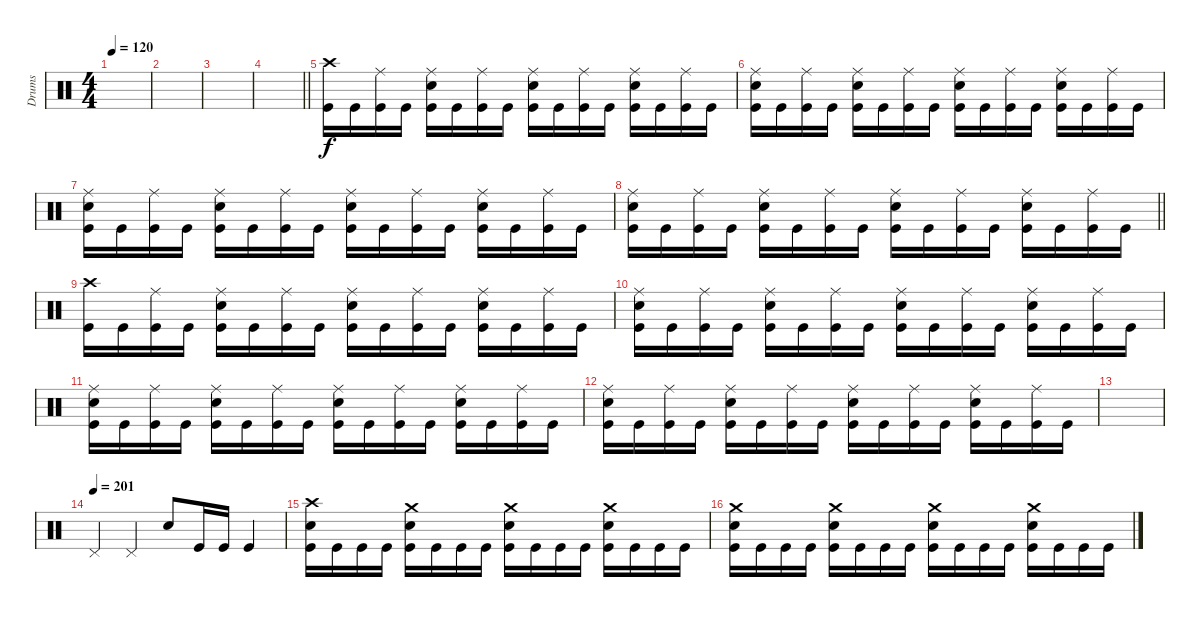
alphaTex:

\track ("Drums" "Drums") {instrument percussion}
\staff
\articulation defaults
\ts (4 4)
\tempo 120
\clef neutral
\ks c
|
|
|
\barLineRight lightlight
|
("Crash high (hit)" "Kick (hit)").16 "Kick (hit)".16 ("Ride (middle)" "Kick (hit)").16 "Kick (hit)".16 ("Ride (middle)" "Electric Snare (hit)" "Kick (hit)").16 "Kick (hit)".16 ("Ride (middle)" "Kick (hit)").16 "Kick (hit)".16 ("Ride (middle)" "Electric Snare (hit)" "Kick (hit)").16 "Kick (hit)".16 ("Ride (middle)" "Kick (hit)").16 "Kick (hit)".16 ("Ride (middle)" "Electric Snare (hit)" "Kick (hit)").16 "Kick (hit)".16 ("Ride (middle)" "Kick (hit)").16 "Kick (hit)".16 |
("Ride (middle)" "Electric Snare (hit)" "Kick (hit)").16 "Kick (hit)".16 ("Ride (middle)" "Kick (hit)").16 "Kick (hit)".16 ("Ride (middle)" "Electric Snare (hit)" "Kick (hit)").16 "Kick (hit)".16 ("Ride (middle)" "Kick (hit)").16 "Kick (hit)".16 ("Ride (middle)" "Electric Snare (hit)" "Kick (hit)").16 "Kick (hit)".16 ("Ride (middle)" "Kick (hit)").16 "Kick (hit)".16 ("Ride (middle)" "Electric Snare (hit)" "Kick (hit)").16 "Kick (hit)".16 ("Ride (middle)" "Kick (hit)").16 "Kick (hit)".16 |
("Ride (middle)" "Electric Snare (hit)" "Kick (hit)").16 "Kick (hit)".16 ("Ride (middle)" "Kick (hit)").16 "Kick (hit)".16 ("Ride (middle)" "Electric Snare (hit)" "Kick (hit)").16 "Kick (hit)".16 ("Ride (middle)" "Kick (hit)").16 "Kick (hit)".16 ("Ride (middle)" "Electric Snare (hit)" "Kick (hit)").16 "Kick (hit)".16 ("Ride (middle)" "Kick (hit)").16 "Kick (hit)".16 ("Ride (middle)" "Electric Snare (hit)" "Kick (hit)").16 "Kick (hit)".16 ("Ride (middle)" "Kick (hit)").16 "Kick (hit)".16 |
\barLineRight lightlight
("Ride (middle)" "Electric Snare (hit)" "Kick (hit)").16 "Kick (hit)".16 ("Ride (middle)" "Kick (hit)").16 "Kick (hit)".16 ("Ride (middle)" "Electric Snare (hit)" "Kick (hit)").16 "Kick (hit)".16 ("Ride (middle)" "Kick (hit)").16 "Kick (hit)".16 ("Ride (middle)" "Electric Snare (hit)" "Kick (hit)").16 "Kick (hit)".16 ("Ride (middle)" "Kick (hit)").16 "Kick (hit)".16 ("Ride (middle)" "Electric Snare (hit)" "Kick (hit)").16 "Kick (hit)".16 ("Ride (middle)" "Kick (hit)").16 "Kick (hit)".16 |
("Crash high (hit)" "Kick (hit)").16 "Kick (hit)".16 ("Ride (middle)" "Kick (hit)").16 "Kick (hit)".16 ("Ride (middle)" "Electric Snare (hit)" "Kick (hit)").16 "Kick (hit)".16 ("Ride (middle)" "Kick (hit)").16 "Kick (hit)".16 ("Ride (middle)" "Electric Snare (hit)" "Kick (hit)").16 "Kick (hit)".16 ("Ride (middle)" "Kick (hit)").16 "Kick (hit)".16 ("Ride (middle)" "Electric Snare (hit)" "Kick (hit)").16 "Kick (hit)".16 ("Ride (middle)" "Kick (hit)").16 "Kick (hit)".16 |
("Ride (middle)" "Electric Snare (hit)" "Kick (hit)").16 "Kick (hit)".16 ("Ride (middle)" "Kick (hit)").16 "Kick (hit)".16 ("Ride (middle)" "Electric Snare (hit)" "Kick (hit)").16 "Kick (hit)".16 ("Ride (middle)" "Kick (hit)").16 "Kick (hit)".16 ("Ride (middle)" "Electric Snare (hit)" "Kick (hit)").16 "Kick (hit)".16 ("Ride (middle)" "Kick (hit)").16 "Kick (hit)".16 ("Ride (middle)" "Electric Snare (hit)" "Kick (hit)").16 "Kick (hit)".16 ("Ride (middle)" "Kick (hit)").16 "Kick (hit)".16 |
("Ride (middle)" "Electric Snare (hit)" "Kick (hit)").16 "Kick (hit)".16 ("Ride (middle)" "Kick (hit)").16 "Kick (hit)".16 ("Ride (middle)" "Electric Snare (hit)" "Kick (hit)").16 "Kick (hit)".16 ("Ride (middle)" "Kick (hit)").16 "Kick (hit)".16 ("Ride (middle)" "Electric Snare (hit)" "Kick (hit)").16 "Kick (hit)".16 ("Ride (middle)" "Kick (hit)").16 "Kick (hit)".16 ("Ride (middle)" "Electric Snare (hit)" "Kick (hit)").16 "Kick (hit)".16 ("Ride (middle)" "Kick (hit)").16 "Kick (hit)".16 |
("Ride (middle)" "Electric Snare (hit)" "Kick (hit)").16 "Kick (hit)".16 ("Ride (middle)" "Kick (hit)").16 "Kick (hit)".16 ("Ride (middle)" "Electric Snare (hit)" "Kick (hit)").16 "Kick (hit)".16 ("Ride (middle)" "Kick (hit)").16 "Kick (hit)".16 ("Ride (middle)" "Electric Snare (hit)" "Kick (hit)").16 "Kick (hit)".16 ("Ride (middle)" "Kick (hit)").16 "Kick (hit)".16 ("Ride (middle)" "Electric Snare (hit)" "Kick (hit)").16 "Kick (hit)".16 ("Ride (middle)" "Kick (hit)").16 "Kick (hit)".16 |
|
\tempo (201)
"Pedal Hi-Hat (hit)".4{volume 15} "Pedal Hi-Hat (hit)".4 "Electric Snare (hit)".8 "Kick (hit)".16 "Kick (hit)".16 "Kick (hit)".4 |
("Crash high (hit)" "Electric Snare (hit)" "Kick (hit)").16 "Kick (hit)".16 "Kick (hit)".16 "Kick (hit)".16 ("Crash medium (hit)" "Electric Snare (hit)" "Kick (hit)").16 "Kick (hit)".16 "Kick (hit)".16 "Kick (hit)".16 ("Crash medium (hit)" "Electric Snare (hit)" "Kick (hit)").16 "Kick (hit)".16 "Kick (hit)".16 "Kick (hit)".16 ("Crash medium (hit)" "Electric Snare (hit)" "Kick (hit)").16 "Kick (hit)".16 "Kick (hit)".16 "Kick (hit)".16 |
("Crash medium (hit)" "Electric Snare (hit)" "Kick (hit)").16 "Kick (hit)".16 "Kick (hit)".16 "Kick (hit)".16 ("Crash medium (hit)" "Electric Snare (hit)" "Kick (hit)").16 "Kick (hit)".16 "Kick (hit)".16 "Kick (hit)".16 ("Crash medium (hit)" "Electric Snare (hit)" "Kick (hit)").16 "Kick (hit)".16 "Kick (hit)".16 "Kick (hit)".16 ("Crash medium (hit)" "Electric Snare (hit)" "Kick (hit)").16 "Kick (hit)".16 "Kick (hit)".16 "Kick (hit)".16
